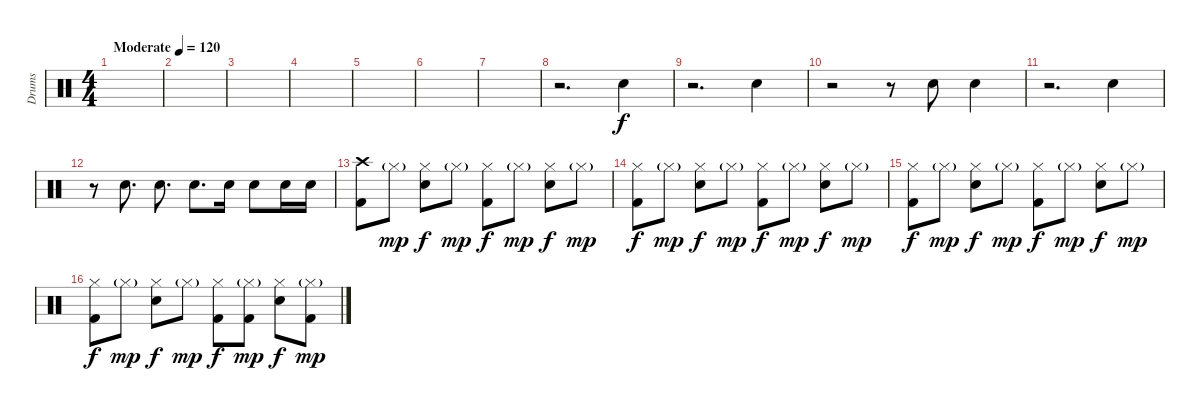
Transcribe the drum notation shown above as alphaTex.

\track ("Drums" "Drums") {instrument percussion}
\staff {score}
\articulation defaults
\ts (4 4)
\tempo (120 "Moderate")
\clef neutral
\ks c
|
|
|
|
|
|
|
r.2{d} "Electric Snare (hit)".4 |
r.2{d} "Electric Snare (hit)".4 |
r.2 r.8 "Electric Snare (hit)".8 "Electric Snare (hit)".4 |
r.2{d} "Electric Snare (hit)".4 |
r.8 "Electric Snare (hit)".8{d} "Electric Snare (hit)".8{d} "Electric Snare (hit)".8{d} "Electric Snare (hit)".16 "Electric Snare (hit)".8 "Electric Snare (hit)".16 "Electric Snare (hit)".16 |
("Crash high (hit)" "Kick (hit) 2").8 "Hi-Hat (closed)"{g}.8{dy mp} ("Hi-Hat (closed)" "Electric Snare (hit)").8{dy f} "Hi-Hat (closed)"{g}.8{dy mp} ("Hi-Hat (closed)" "Kick (hit) 2").8{dy f} "Hi-Hat (closed)"{g}.8{dy mp} ("Hi-Hat (closed)" "Electric Snare (hit)").8{dy f} "Hi-Hat (closed)"{g}.8{dy mp} |
("Hi-Hat (closed)" "Kick (hit) 2").8{dy f} "Hi-Hat (closed)"{g}.8{dy mp} ("Hi-Hat (closed)" "Electric Snare (hit)").8{dy f} "Hi-Hat (closed)"{g}.8{dy mp} ("Hi-Hat (closed)" "Kick (hit) 2").8{dy f} "Hi-Hat (closed)"{g}.8{dy mp} ("Hi-Hat (closed)" "Electric Snare (hit)").8{dy f} "Hi-Hat (closed)"{g}.8{dy mp} |
("Hi-Hat (closed)" "Kick (hit) 2").8{dy f} "Hi-Hat (closed)"{g}.8{dy mp} ("Hi-Hat (closed)" "Electric Snare (hit)").8{dy f} "Hi-Hat (closed)"{g}.8{dy mp} ("Hi-Hat (closed)" "Kick (hit) 2").8{dy f} "Hi-Hat (closed)"{g}.8{dy mp} ("Hi-Hat (closed)" "Electric Snare (hit)").8{dy f} "Hi-Hat (closed)"{g}.8{dy mp} |
("Hi-Hat (closed)" "Kick (hit) 2").8{dy f} "Hi-Hat (closed)"{g}.8{dy mp} ("Hi-Hat (closed)" "Electric Snare (hit)").8{dy f} "Hi-Hat (closed)"{g}.8{dy mp} ("Hi-Hat (closed)" "Kick (hit) 2").8{dy f} ("Hi-Hat (closed)"{g} "Kick (hit) 2").8{dy mp} ("Hi-Hat (closed)" "Electric Snare (hit)").8{dy f} ("Hi-Hat (closed)"{g} "Kick (hit) 2").8{dy mp}
